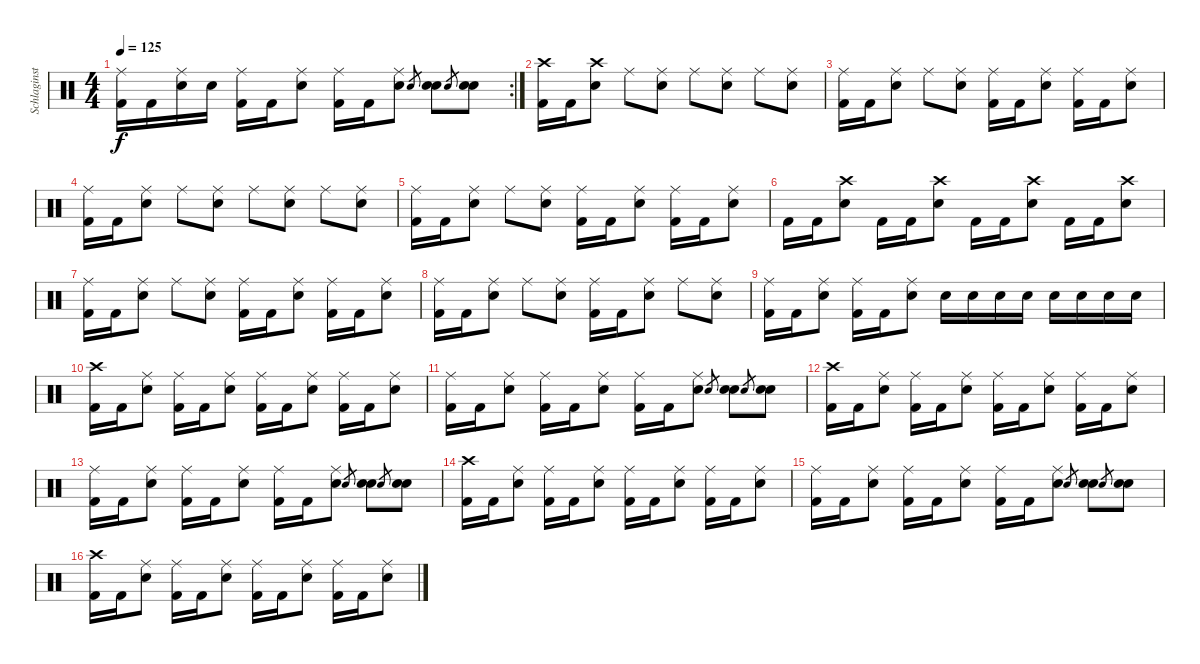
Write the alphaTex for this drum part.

\track ("Schlaginstrumente - Auswahl" "Schlaginst") {instrument percussion}
\staff {score}
\articulation defaults
\rc 2
\ts (4 4)
\tempo 125
\clef neutral
\ks c
("Ride (middle)" "Kick (hit) 2").16{dy f} "Kick (hit) 2".16 ("Ride (middle)" "Snare (hit) 2").16 "Snare (hit) 2".16 ("Ride (middle)" "Kick (hit) 2").16 "Kick (hit) 2".16 ("Ride (middle)" "Snare (hit) 2").8 ("Ride (middle)" "Kick (hit) 2").16 "Kick (hit) 2".16 ("Ride (middle)" "Snare (hit) 2").8 "Snare (hit) 2".8{gr} ("Snare (hit) 2" "Snare (hit) 2").8 "Snare (hit) 2".8{gr} ("Snare (hit) 2" "Snare (hit) 2").8 |
("Crash high (hit)" "Kick (hit) 2").16 "Kick (hit) 2".16 ("Crash high (hit)" "Snare (hit) 2").8 "Ride (middle)".8 ("Ride (middle)" "Snare (hit) 2").8 "Ride (middle)".8 ("Ride (middle)" "Snare (hit) 2").8 "Ride (middle)".8 ("Ride (middle)" "Snare (hit) 2").8 |
("Ride (middle)" "Kick (hit) 2").16 "Kick (hit) 2".16 ("Ride (middle)" "Snare (hit) 2").8 "Ride (middle)".8 ("Ride (middle)" "Snare (hit) 2").8 ("Ride (middle)" "Kick (hit) 2").16 "Kick (hit) 2".16 ("Ride (middle)" "Snare (hit) 2").8 ("Ride (middle)" "Kick (hit) 2").16 "Kick (hit) 2".16 ("Ride (middle)" "Snare (hit) 2").8 |
("Ride (middle)" "Kick (hit) 2").16 "Kick (hit) 2".16 ("Ride (middle)" "Snare (hit) 2").8 "Ride (middle)".8 ("Ride (middle)" "Snare (hit) 2").8 "Ride (middle)".8 ("Ride (middle)" "Snare (hit) 2").8 "Ride (middle)".8 ("Ride (middle)" "Snare (hit) 2").8 |
("Ride (middle)" "Kick (hit) 2").16 "Kick (hit) 2".16 ("Ride (middle)" "Snare (hit) 2").8 "Ride (middle)".8 ("Ride (middle)" "Snare (hit) 2").8 ("Ride (middle)" "Kick (hit) 2").16 "Kick (hit) 2".16 ("Ride (middle)" "Snare (hit) 2").8 ("Ride (middle)" "Kick (hit) 2").16 "Kick (hit) 2".16 ("Ride (middle)" "Snare (hit) 2").8 |
"Kick (hit) 2".16 "Kick (hit) 2".16 ("Crash high (hit)" "Snare (hit) 2").8 "Kick (hit) 2".16 "Kick (hit) 2".16 ("Crash high (hit)" "Snare (hit) 2").8 "Kick (hit) 2".16 "Kick (hit) 2".16 ("Crash high (hit)" "Snare (hit) 2").8 "Kick (hit) 2".16 "Kick (hit) 2".16 ("Crash high (hit)" "Snare (hit) 2").8 |
("Ride (middle)" "Kick (hit) 2").16 "Kick (hit) 2".16 ("Ride (middle)" "Snare (hit) 2").8 "Ride (middle)".8 ("Ride (middle)" "Snare (hit) 2").8 ("Ride (middle)" "Kick (hit) 2").16 "Kick (hit) 2".16 ("Ride (middle)" "Snare (hit) 2").8 ("Ride (middle)" "Kick (hit) 2").16 "Kick (hit) 2".16 ("Ride (middle)" "Snare (hit) 2").8 |
("Ride (middle)" "Kick (hit) 2").16 "Kick (hit) 2".16 ("Ride (middle)" "Snare (hit) 2").8 "Ride (middle)".8 ("Ride (middle)" "Snare (hit) 2").8 ("Ride (middle)" "Kick (hit) 2").16 "Kick (hit) 2".16 ("Ride (middle)" "Snare (hit) 2").8 "Ride (middle)".8 ("Ride (middle)" "Snare (hit) 2").8 |
("Ride (middle)" "Kick (hit) 2").16 "Kick (hit) 2".16 ("Ride (middle)" "Snare (hit) 2").8 ("Ride (middle)" "Kick (hit) 2").16 "Kick (hit) 2".16 ("Ride (middle)" "Snare (hit) 2").8 "Snare (hit) 2".16 "Snare (hit) 2".16 "Snare (hit) 2".16 "Snare (hit) 2".16 "Snare (hit) 2".16 "Snare (hit) 2".16 "Snare (hit) 2".16 "Snare (hit) 2".16 |
("Crash high (hit)" "Kick (hit) 2").16 "Kick (hit) 2".16 ("Ride (middle)" "Snare (hit) 2").8 ("Ride (middle)" "Kick (hit) 2").16 "Kick (hit) 2".16 ("Ride (middle)" "Snare (hit) 2").8 ("Ride (middle)" "Kick (hit) 2").16 "Kick (hit) 2".16 ("Ride (middle)" "Snare (hit) 2").8 ("Ride (middle)" "Kick (hit) 2").16 "Kick (hit) 2".16 ("Ride (middle)" "Snare (hit) 2").8 |
("Ride (middle)" "Kick (hit) 2").16 "Kick (hit) 2".16 ("Ride (middle)" "Snare (hit) 2").8 ("Ride (middle)" "Kick (hit) 2").16 "Kick (hit) 2".16 ("Ride (middle)" "Snare (hit) 2").8 ("Ride (middle)" "Kick (hit) 2").16 "Kick (hit) 2".16 ("Ride (middle)" "Snare (hit) 2").8 "Snare (hit) 2".8{gr} ("Snare (hit) 2" "Snare (hit) 2").8 "Snare (hit) 2".8{gr} ("Snare (hit) 2" "Snare (hit) 2").8 |
("Crash high (hit)" "Kick (hit) 2").16 "Kick (hit) 2".16 ("Ride (middle)" "Snare (hit) 2").8 ("Ride (middle)" "Kick (hit) 2").16 "Kick (hit) 2".16 ("Ride (middle)" "Snare (hit) 2").8 ("Ride (middle)" "Kick (hit) 2").16 "Kick (hit) 2".16 ("Ride (middle)" "Snare (hit) 2").8 ("Ride (middle)" "Kick (hit) 2").16 "Kick (hit) 2".16 ("Ride (middle)" "Snare (hit) 2").8 |
("Ride (middle)" "Kick (hit) 2").16 "Kick (hit) 2".16 ("Ride (middle)" "Snare (hit) 2").8 ("Ride (middle)" "Kick (hit) 2").16 "Kick (hit) 2".16 ("Ride (middle)" "Snare (hit) 2").8 ("Ride (middle)" "Kick (hit) 2").16 "Kick (hit) 2".16 ("Ride (middle)" "Snare (hit) 2").8 "Snare (hit) 2".8{gr} ("Snare (hit) 2" "Snare (hit) 2").8 "Snare (hit) 2".8{gr} ("Snare (hit) 2" "Snare (hit) 2").8 |
("Crash high (hit)" "Kick (hit) 2").16 "Kick (hit) 2".16 ("Ride (middle)" "Snare (hit) 2").8 ("Ride (middle)" "Kick (hit) 2").16 "Kick (hit) 2".16 ("Ride (middle)" "Snare (hit) 2").8 ("Ride (middle)" "Kick (hit) 2").16 "Kick (hit) 2".16 ("Ride (middle)" "Snare (hit) 2").8 ("Ride (middle)" "Kick (hit) 2").16 "Kick (hit) 2".16 ("Ride (middle)" "Snare (hit) 2").8 |
("Ride (middle)" "Kick (hit) 2").16 "Kick (hit) 2".16 ("Ride (middle)" "Snare (hit) 2").8 ("Ride (middle)" "Kick (hit) 2").16 "Kick (hit) 2".16 ("Ride (middle)" "Snare (hit) 2").8 ("Ride (middle)" "Kick (hit) 2").16 "Kick (hit) 2".16 ("Ride (middle)" "Snare (hit) 2").8 "Snare (hit) 2".8{gr} ("Snare (hit) 2" "Snare (hit) 2").8 "Snare (hit) 2".8{gr} ("Snare (hit) 2" "Snare (hit) 2").8 |
("Crash high (hit)" "Kick (hit) 2").16 "Kick (hit) 2".16 ("Ride (middle)" "Snare (hit) 2").8 ("Ride (middle)" "Kick (hit) 2").16 "Kick (hit) 2".16 ("Ride (middle)" "Snare (hit) 2").8 ("Ride (middle)" "Kick (hit) 2").16 "Kick (hit) 2".16 ("Ride (middle)" "Snare (hit) 2").8 ("Ride (middle)" "Kick (hit) 2").16 "Kick (hit) 2".16 ("Ride (middle)" "Snare (hit) 2").8
